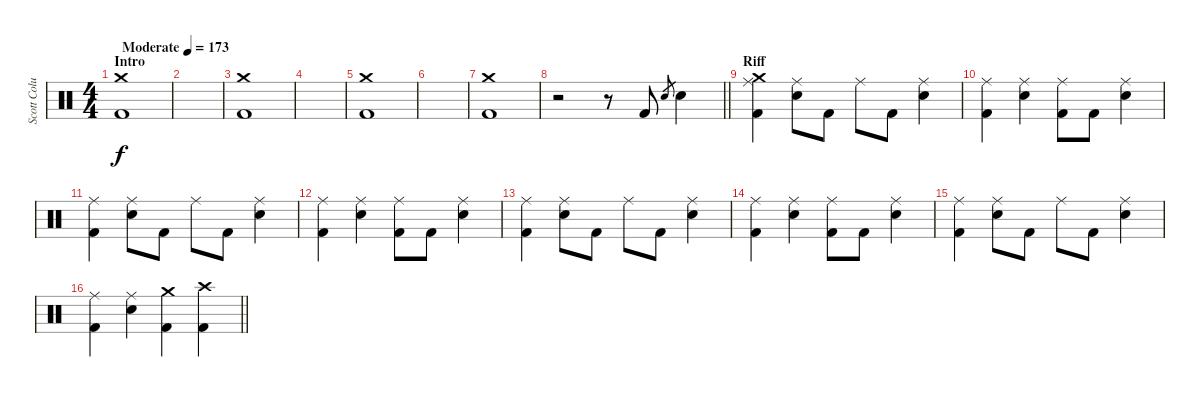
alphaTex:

\track ("Scott Columbus" "Scott Colu") {instrument percussion}
\staff {score}
\articulation defaults
\ts (4 4)
\section ("" "Intro")
\tempo (173 "Moderate")
\clef neutral
\ks c
("Kick (hit) 2" "Crash medium (hit)").1{dy f} |
|
("Kick (hit) 2" "Crash medium (hit)").1 |
|
("Kick (hit) 2" "Crash medium (hit)").1 |
|
("Kick (hit) 2" "Crash medium (hit)").1 |
\barLineRight lightlight
r.2 r.8 "Kick (hit) 2".8 "Snare (hit) 2".8{gr} "Snare (hit) 2".4 |
\section ("" "Riff")
("Kick (hit) 2" "Ride (middle)" "Crash medium (hit)").4 ("Snare (hit) 2" "Ride (middle)").8 "Kick (hit) 2".8 "Ride (middle)".8 "Kick (hit) 2".8 ("Snare (hit) 2" "Ride (middle)").4 |
("Kick (hit) 2" "Ride (middle)").4 ("Snare (hit) 2" "Ride (middle)").4 ("Kick (hit) 2" "Ride (middle)").8 "Kick (hit) 2".8 ("Snare (hit) 2" "Ride (middle)").4 |
("Kick (hit) 2" "Ride (middle)").4 ("Snare (hit) 2" "Ride (middle)").8 "Kick (hit) 2".8 "Ride (middle)".8 "Kick (hit) 2".8 ("Snare (hit) 2" "Ride (middle)").4 |
("Kick (hit) 2" "Ride (middle)").4 ("Snare (hit) 2" "Ride (middle)").4 ("Kick (hit) 2" "Ride (middle)").8 "Kick (hit) 2".8 ("Snare (hit) 2" "Ride (middle)").4 |
("Kick (hit) 2" "Ride (middle)").4 ("Snare (hit) 2" "Ride (middle)").8 "Kick (hit) 2".8 "Ride (middle)".8 "Kick (hit) 2".8 ("Snare (hit) 2" "Ride (middle)").4 |
("Kick (hit) 2" "Ride (middle)").4 ("Snare (hit) 2" "Ride (middle)").4 ("Kick (hit) 2" "Ride (middle)").8 "Kick (hit) 2".8 ("Snare (hit) 2" "Ride (middle)").4 |
("Kick (hit) 2" "Ride (middle)").4 ("Snare (hit) 2" "Ride (middle)").8 "Kick (hit) 2".8 "Ride (middle)".8 "Kick (hit) 2".8 ("Snare (hit) 2" "Ride (middle)").4 |
\barLineRight lightlight
("Kick (hit) 2" "Ride (middle)").4 ("Snare (hit) 2" "Ride (middle)").4 ("Kick (hit) 2" "Crash medium (hit)").4 ("Kick (hit) 2" "Crash high (hit)").4
